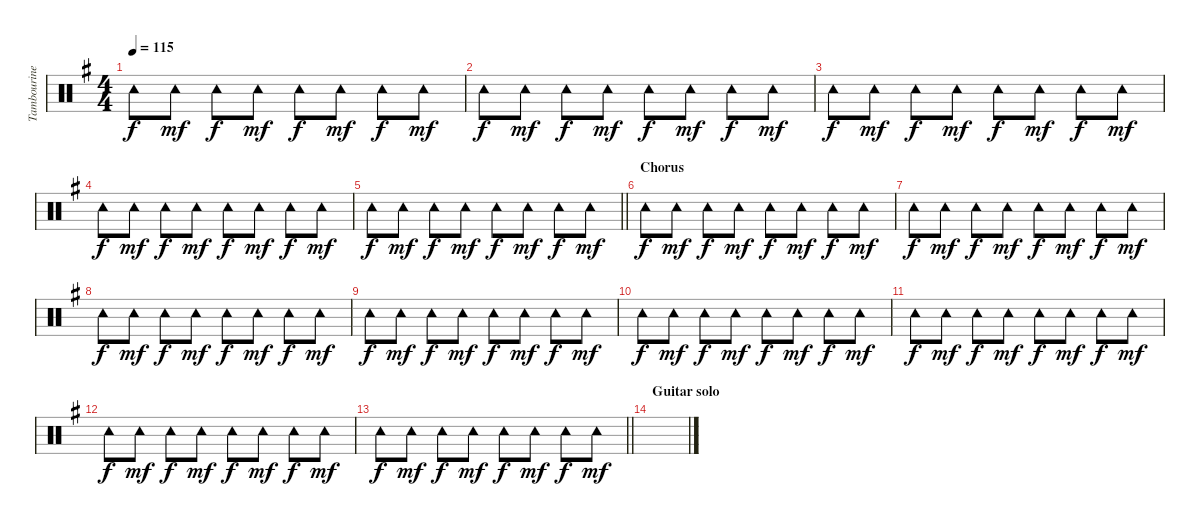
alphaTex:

\track ("Tambourine" "Tambourine") {instrument percussion}
\staff {score}
\articulation defaults
\ts (4 4)
\tempo 115
\clef neutral
\ks g "Tambourine (hit)".8{dy f} "Tambourine (hit)".8{dy mf} "Tambourine (hit)".8{dy f} "Tambourine (hit)".8{dy mf} "Tambourine (hit)".8{dy f} "Tambourine (hit)".8{dy mf} "Tambourine (hit)".8{dy f} "Tambourine (hit)".8{dy mf}
|
"Tambourine (hit)".8{dy f} "Tambourine (hit)".8{dy mf} "Tambourine (hit)".8{dy f} "Tambourine (hit)".8{dy mf} "Tambourine (hit)".8{dy f} "Tambourine (hit)".8{dy mf} "Tambourine (hit)".8{dy f} "Tambourine (hit)".8{dy mf} |
"Tambourine (hit)".8{dy f} "Tambourine (hit)".8{dy mf} "Tambourine (hit)".8{dy f} "Tambourine (hit)".8{dy mf} "Tambourine (hit)".8{dy f} "Tambourine (hit)".8{dy mf} "Tambourine (hit)".8{dy f} "Tambourine (hit)".8{dy mf} |
"Tambourine (hit)".8{dy f} "Tambourine (hit)".8{dy mf} "Tambourine (hit)".8{dy f} "Tambourine (hit)".8{dy mf} "Tambourine (hit)".8{dy f} "Tambourine (hit)".8{dy mf} "Tambourine (hit)".8{dy f} "Tambourine (hit)".8{dy mf} |
\barLineRight lightlight "Tambourine (hit)".8{dy f} "Tambourine (hit)".8{dy mf} "Tambourine (hit)".8{dy f} "Tambourine (hit)".8{dy mf} "Tambourine (hit)".8{dy f} "Tambourine (hit)".8{dy mf} "Tambourine (hit)".8{dy f} "Tambourine (hit)".8{dy mf}
|
\section ("" "Chorus")
"Tambourine (hit)".8{dy f} "Tambourine (hit)".8{dy mf} "Tambourine (hit)".8{dy f} "Tambourine (hit)".8{dy mf} "Tambourine (hit)".8{dy f} "Tambourine (hit)".8{dy mf} "Tambourine (hit)".8{dy f} "Tambourine (hit)".8{dy mf} |
"Tambourine (hit)".8{dy f} "Tambourine (hit)".8{dy mf} "Tambourine (hit)".8{dy f} "Tambourine (hit)".8{dy mf} "Tambourine (hit)".8{dy f} "Tambourine (hit)".8{dy mf} "Tambourine (hit)".8{dy f} "Tambourine (hit)".8{dy mf} |
"Tambourine (hit)".8{dy f} "Tambourine (hit)".8{dy mf} "Tambourine (hit)".8{dy f} "Tambourine (hit)".8{dy mf} "Tambourine (hit)".8{dy f} "Tambourine (hit)".8{dy mf} "Tambourine (hit)".8{dy f} "Tambourine (hit)".8{dy mf} |
"Tambourine (hit)".8{dy f} "Tambourine (hit)".8{dy mf} "Tambourine (hit)".8{dy f} "Tambourine (hit)".8{dy mf} "Tambourine (hit)".8{dy f} "Tambourine (hit)".8{dy mf} "Tambourine (hit)".8{dy f} "Tambourine (hit)".8{dy mf} |
"Tambourine (hit)".8{dy f} "Tambourine (hit)".8{dy mf} "Tambourine (hit)".8{dy f} "Tambourine (hit)".8{dy mf} "Tambourine (hit)".8{dy f} "Tambourine (hit)".8{dy mf} "Tambourine (hit)".8{dy f} "Tambourine (hit)".8{dy mf} |
"Tambourine (hit)".8{dy f} "Tambourine (hit)".8{dy mf} "Tambourine (hit)".8{dy f} "Tambourine (hit)".8{dy mf} "Tambourine (hit)".8{dy f} "Tambourine (hit)".8{dy mf} "Tambourine (hit)".8{dy f} "Tambourine (hit)".8{dy mf} |
"Tambourine (hit)".8{dy f} "Tambourine (hit)".8{dy mf} "Tambourine (hit)".8{dy f} "Tambourine (hit)".8{dy mf} "Tambourine (hit)".8{dy f} "Tambourine (hit)".8{dy mf} "Tambourine (hit)".8{dy f} "Tambourine (hit)".8{dy mf} |
\barLineRight lightlight "Tambourine (hit)".8{dy f} "Tambourine (hit)".8{dy mf} "Tambourine (hit)".8{dy f} "Tambourine (hit)".8{dy mf} "Tambourine (hit)".8{dy f} "Tambourine (hit)".8{dy mf} "Tambourine (hit)".8{dy f} "Tambourine (hit)".8{dy mf}
|
\section ("" "Guitar solo")
